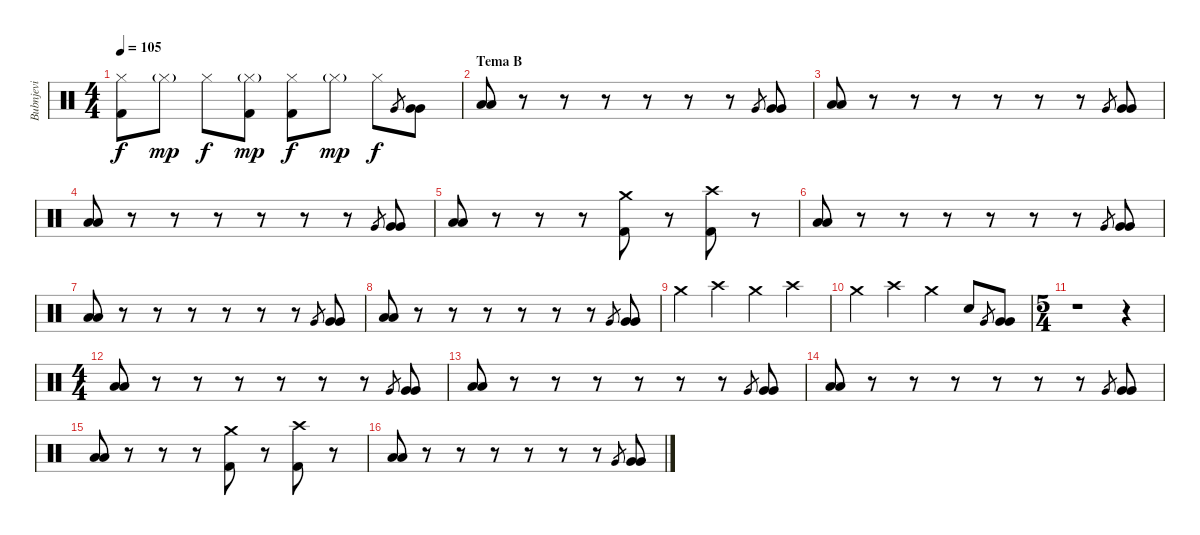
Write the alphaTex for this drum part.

\track ("Bubnjevi" "Bubnjevi") {instrument percussion}
\staff {score}
\articulation defaults
\ts (4 4)
\tempo 105
\clef neutral
\ks c
("Hi-Hat (closed)" "Kick (hit) 2").8{dy f} "Hi-Hat (closed)"{g}.8{dy mp} "Hi-Hat (closed)".8{dy f} ("Hi-Hat (closed)"{g} "Kick (hit) 2").8{dy mp} ("Hi-Hat (closed)" "Kick (hit) 2").8{dy f} "Hi-Hat (closed)"{g}.8{dy mp} "Hi-Hat (closed)".8{dy f} "Very Low Tom (hit)".8{gr} ("Very Low Tom (hit)" "Very Low Tom (hit)").8 |
\section ("" "Tema B")
("Low Tom (hit)" "Low Tom (hit)").8 r.8 r.8 r.8 r.8 r.8 r.8 "Very Low Tom (hit)".8{gr} ("Very Low Tom (hit)" "Very Low Tom (hit)").8 |
("Low Tom (hit)" "Low Tom (hit)").8 r.8 r.8 r.8 r.8 r.8 r.8 "Very Low Tom (hit)".8{gr} ("Very Low Tom (hit)" "Very Low Tom (hit)").8 |
("Low Tom (hit)" "Low Tom (hit)").8 r.8 r.8 r.8 r.8 r.8 r.8 "Very Low Tom (hit)".8{gr} ("Very Low Tom (hit)" "Very Low Tom (hit)").8 |
("Low Tom (hit)" "Low Tom (hit)").8 r.8 r.8 r.8 ("Crash medium (hit)" "Kick (hit) 2").8 r.8 ("Crash high (hit)" "Kick (hit) 2").8 r.8 |
("Low Tom (hit)" "Low Tom (hit)").8 r.8 r.8 r.8 r.8 r.8 r.8 "Very Low Tom (hit)".8{gr} ("Very Low Tom (hit)" "Very Low Tom (hit)").8 |
("Low Tom (hit)" "Low Tom (hit)").8 r.8 r.8 r.8 r.8 r.8 r.8 "Very Low Tom (hit)".8{gr} ("Very Low Tom (hit)" "Very Low Tom (hit)").8 |
("Low Tom (hit)" "Low Tom (hit)").8 r.8 r.8 r.8 r.8 r.8 r.8 "Very Low Tom (hit)".8{gr} ("Very Low Tom (hit)" "Very Low Tom (hit)").8 |
"Crash medium (hit)".4 "Crash high (hit)".4 "Crash medium (hit)".4 "Crash high (hit)".4 |
"Crash medium (hit)".4 "Crash high (hit)".4 "Crash medium (hit)".4 "Electric Snare (hit)".8 "Very Low Tom (hit)".8{gr} ("Very Low Tom (hit)" "Very Low Tom (hit)").8 |
\ts (5 4)
r.1 r.4 |
\ts (4 4)
("Low Tom (hit)" "Low Tom (hit)").8 r.8 r.8 r.8 r.8 r.8 r.8 "Very Low Tom (hit)".8{gr} ("Very Low Tom (hit)" "Very Low Tom (hit)").8 |
("Low Tom (hit)" "Low Tom (hit)").8 r.8 r.8 r.8 r.8 r.8 r.8 "Very Low Tom (hit)".8{gr} ("Very Low Tom (hit)" "Very Low Tom (hit)").8 |
("Low Tom (hit)" "Low Tom (hit)").8 r.8 r.8 r.8 r.8 r.8 r.8 "Very Low Tom (hit)".8{gr} ("Very Low Tom (hit)" "Very Low Tom (hit)").8 |
("Low Tom (hit)" "Low Tom (hit)").8 r.8 r.8 r.8 ("Crash medium (hit)" "Kick (hit) 2").8 r.8 ("Crash high (hit)" "Kick (hit) 2").8 r.8 |
("Low Tom (hit)" "Low Tom (hit)").8 r.8 r.8 r.8 r.8 r.8 r.8 "Very Low Tom (hit)".8{gr} ("Very Low Tom (hit)" "Very Low Tom (hit)").8
